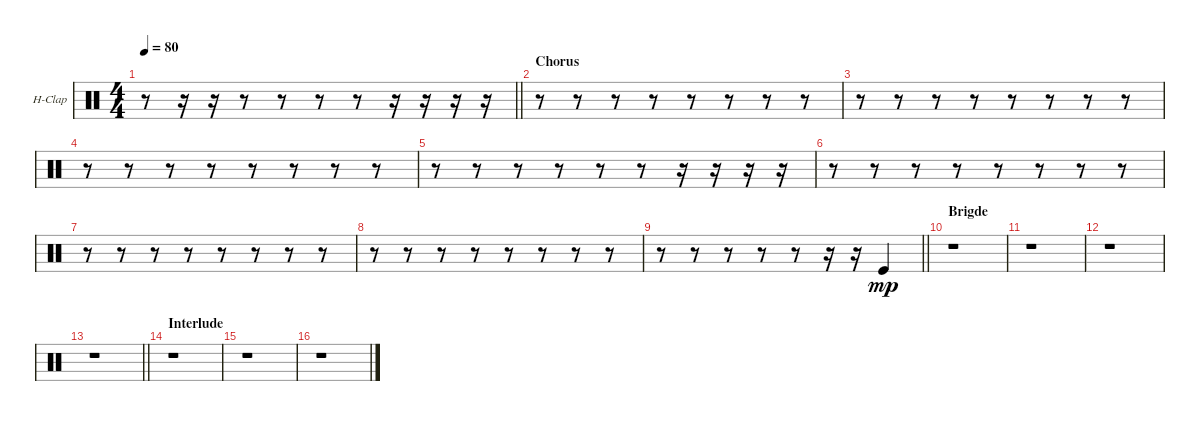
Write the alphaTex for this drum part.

\bracketExtendMode groupsimilarinstruments
\firstSystemTrackNameOrientation horizontal
\otherSystemsTrackNameOrientation horizontal
\track ("Hand Clap" "H-Clap") {instrument percussion}
\staff {score}
\articulation defaults
\ts (4 4)
\tempo 80
\clef neutral
\barLineRight lightlight
\ks c
r.8{dy p} r.16 r.16 r.8 r.8 r.8 r.8 r.16 r.16 r.16 r.16 |
\section ("" "Chorus")
r.8 r.8 r.8 r.8 r.8 r.8 r.8 r.8 |
r.8 r.8 r.8 r.8 r.8 r.8 r.8 r.8 |
r.8 r.8 r.8 r.8 r.8 r.8 r.8 r.8 |
r.8 r.8 r.8 r.8 r.8 r.8 r.16 r.16 r.16 r.16 |
r.8 r.8 r.8 r.8 r.8 r.8 r.8 r.8 |
r.8 r.8 r.8 r.8 r.8 r.8 r.8 r.8 |
r.8 r.8 r.8 r.8 r.8 r.8 r.8 r.8 |
\barLineRight lightlight
r.8 r.8 r.8 r.8 r.8 r.16 r.16 "Kick (hit)".4{dy mp} |
\section ("" "Brigde")
r.1 |
r.1 |
r.1 |
\barLineRight lightlight
r.1 |
\section ("" "Interlude")
r.1 |
r.1 |
r.1
